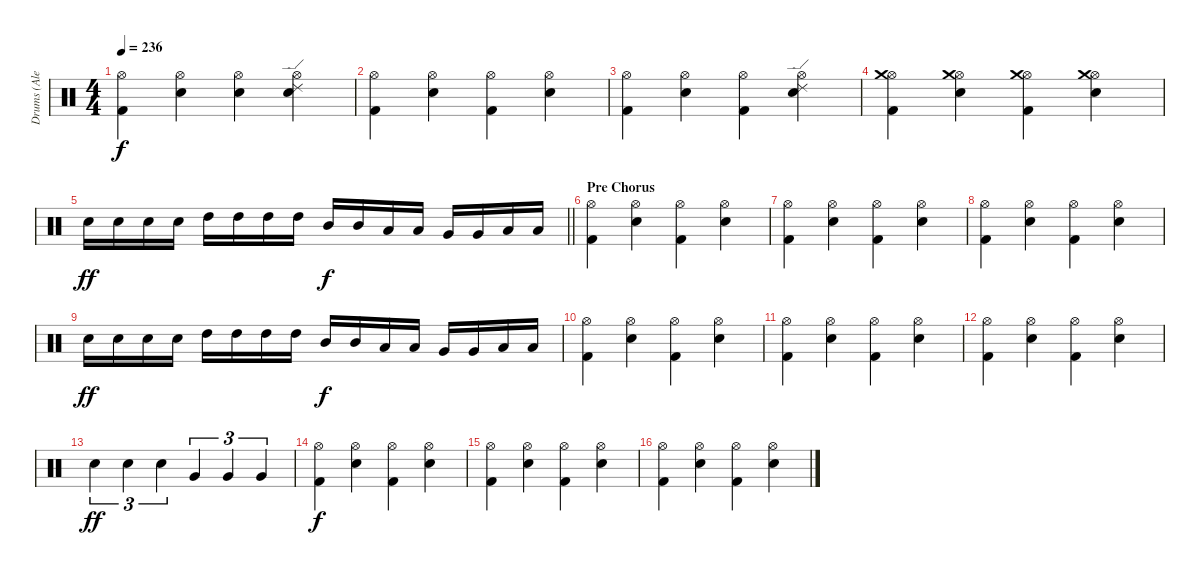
\track ("Drums (Alex Van Halen)" "Drums (Ale") {instrument percussion}
\staff {score}
\articulation defaults
\ts (4 4)
\tempo 236
\clef neutral
\ks c
("Hi-Hat (open)" "Kick (hit) 2").4{dy f} ("Hi-Hat (open)" "Snare (hit) 2").4 ("Hi-Hat (open)" "Snare (hit) 2").4 ("Hi-Hat (open)" "Ride (edge) 2" "Snare (hit) 2").4 |
("Hi-Hat (open)" "Kick (hit) 2").4 ("Hi-Hat (open)" "Snare (hit) 2").4 ("Hi-Hat (open)" "Kick (hit) 2").4 ("Hi-Hat (open)" "Snare (hit) 2").4 |
("Hi-Hat (open)" "Kick (hit) 2").4 ("Hi-Hat (open)" "Snare (hit) 2").4 ("Hi-Hat (open)" "Kick (hit) 2").4 ("Hi-Hat (open)" "Ride (edge) 2" "Snare (hit) 2").4 |
("Hi-Hat (open)" "Crash medium (hit)" "Kick (hit) 2").4 ("Hi-Hat (open)" "Crash medium (hit)" "Snare (hit) 2").4 ("Hi-Hat (open)" "Crash medium (hit)" "Kick (hit) 2").4 ("Hi-Hat (open)" "Crash medium (hit)" "Snare (hit) 2").4 |
\barLineRight lightlight "Snare (hit) 2".16{dy ff} "Snare (hit) 2".16 "Snare (hit) 2".16 "Snare (hit) 2".16 "High Tom (hit)".16 "High Tom (hit)".16 "High Tom (hit)".16 "High Tom (hit)".16 "Mid Tom (hit)".16{dy f} "Mid Tom (hit)".16 "Low Tom (hit)".16 "Low Tom (hit)".16 "Very Low Tom (hit)".16 "Very Low Tom (hit)".16 "Low Floor Tom (hit)".16 "Low Floor Tom (hit)".16
|
\section ("" "Pre Chorus")
("Hi-Hat (open)" "Kick (hit) 2").4 ("Hi-Hat (open)" "Snare (hit) 2").4 ("Hi-Hat (open)" "Kick (hit) 2").4 ("Hi-Hat (open)" "Snare (hit) 2").4 |
("Hi-Hat (open)" "Kick (hit) 2").4 ("Hi-Hat (open)" "Snare (hit) 2").4 ("Hi-Hat (open)" "Kick (hit) 2").4 ("Hi-Hat (open)" "Snare (hit) 2").4 |
("Hi-Hat (open)" "Kick (hit) 2").4 ("Hi-Hat (open)" "Snare (hit) 2").4 ("Hi-Hat (open)" "Kick (hit) 2").4 ("Hi-Hat (open)" "Snare (hit) 2").4 |
"Snare (hit) 2".16{dy ff} "Snare (hit) 2".16 "Snare (hit) 2".16 "Snare (hit) 2".16 "High Tom (hit)".16 "High Tom (hit)".16 "High Tom (hit)".16 "High Tom (hit)".16 "Mid Tom (hit)".16{dy f} "Mid Tom (hit)".16 "Low Tom (hit)".16 "Low Tom (hit)".16 "Very Low Tom (hit)".16 "Very Low Tom (hit)".16 "Low Floor Tom (hit)".16 "Low Floor Tom (hit)".16 |
("Hi-Hat (open)" "Kick (hit) 2").4 ("Hi-Hat (open)" "Snare (hit) 2").4 ("Hi-Hat (open)" "Kick (hit) 2").4 ("Hi-Hat (open)" "Snare (hit) 2").4 |
("Hi-Hat (open)" "Kick (hit) 2").4 ("Hi-Hat (open)" "Snare (hit) 2").4 ("Hi-Hat (open)" "Kick (hit) 2").4 ("Hi-Hat (open)" "Snare (hit) 2").4 |
("Hi-Hat (open)" "Kick (hit) 2").4 ("Hi-Hat (open)" "Snare (hit) 2").4 ("Hi-Hat (open)" "Kick (hit) 2").4 ("Hi-Hat (open)" "Snare (hit) 2").4 |
"Snare (hit) 2".4{tu (3 2) dy ff} "Snare (hit) 2".4{tu (3 2)} "Snare (hit) 2".4{tu (3 2)} "Very Low Tom (hit)".4{tu (3 2)} "Very Low Tom (hit)".4{tu (3 2)} "Very Low Tom (hit)".4{tu (3 2)} |
("Hi-Hat (open)" "Kick (hit) 2").4{dy f} ("Hi-Hat (open)" "Snare (hit) 2").4 ("Hi-Hat (open)" "Kick (hit) 2").4 ("Hi-Hat (open)" "Snare (hit) 2").4 |
("Hi-Hat (open)" "Kick (hit) 2").4 ("Hi-Hat (open)" "Snare (hit) 2").4 ("Hi-Hat (open)" "Kick (hit) 2").4 ("Hi-Hat (open)" "Snare (hit) 2").4 |
("Hi-Hat (open)" "Kick (hit) 2").4 ("Hi-Hat (open)" "Snare (hit) 2").4 ("Hi-Hat (open)" "Kick (hit) 2").4 ("Hi-Hat (open)" "Snare (hit) 2").4
